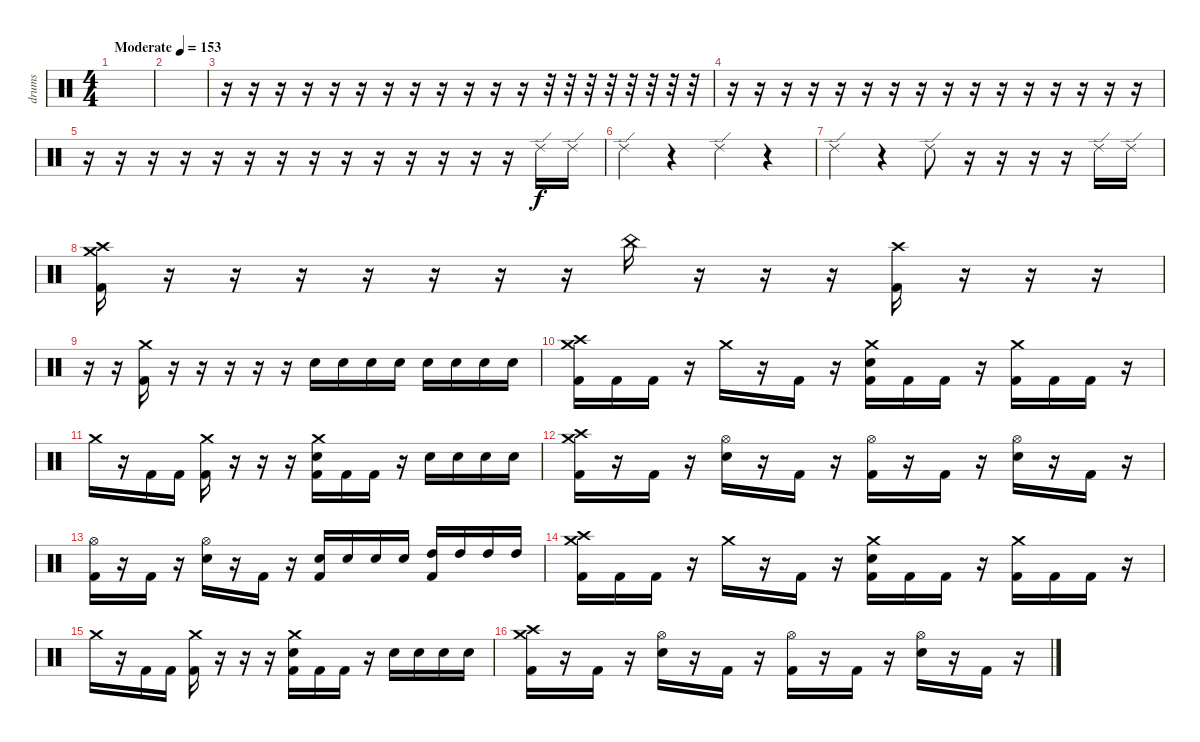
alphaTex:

\track ("drums" "drums") {instrument percussion}
\staff {score}
\articulation defaults
\ts (4 4)
\tempo (153 "Moderate")
\clef neutral
\ks c
|
|
r.16 r.16 r.16 r.16 r.16 r.16 r.16 r.16 r.16 r.16 r.16 r.16 r.32 r.32 r.32 r.32 r.32 r.32 r.32 r.32 |
r.16 r.16 r.16 r.16 r.16 r.16 r.16 r.16 r.16 r.16 r.16 r.16 r.16 r.16 r.16 r.16 |
r.16 r.16 r.16 r.16 r.16 r.16 r.16 r.16 r.16 r.16 r.16 r.16 r.16 r.16 "Ride (edge) 2".16 "Ride (edge) 2".16 |
"Ride (edge) 2".4 r.4 "Ride (edge) 2".4 r.4 |
"Ride (edge) 2".4 r.4 "Ride (edge) 2".8 r.16 r.16 r.16 r.16 "Ride (edge) 2".16 "Ride (edge) 2".16 |
("Crash medium (hit)" "Crash high (hit)" "Kick (hit) 2").16 r.16 r.16 r.16 r.16 r.16 r.16 r.16 "China (hit)".16 r.16 r.16 r.16 ("Crash high (hit)" "Kick (hit) 2").16 r.16 r.16 r.16 |
r.16 r.16 ("Crash medium (hit)" "Kick (hit) 2").16 r.16 r.16 r.16 r.16 r.16 "Electric Snare (hit)".16 "Electric Snare (hit)".16 "Electric Snare (hit)".16 "Electric Snare (hit)".16 "Electric Snare (hit)".16 "Electric Snare (hit)".16 "Electric Snare (hit)".16 "Electric Snare (hit)".16 |
("Crash medium (hit)" "Crash high (hit)" "Kick (hit) 2").16 "Kick (hit) 2".16 "Kick (hit) 2".16 r.16 "Crash medium (hit)".16 r.16 "Kick (hit) 2".16 r.16 ("Crash medium (hit)" "Electric Snare (hit)" "Kick (hit) 2").16 "Kick (hit) 2".16 "Kick (hit) 2".16 r.16 ("Crash medium (hit)" "Kick (hit) 2").16 "Kick (hit) 2".16 "Kick (hit) 2".16 r.16 |
"Crash medium (hit)".16 r.16 "Kick (hit) 2".16 "Kick (hit) 2".16 ("Crash medium (hit)" "Kick (hit) 2").16 r.16 r.16 r.16 ("Crash medium (hit)" "Electric Snare (hit)" "Kick (hit) 2").16 "Kick (hit) 2".16 "Kick (hit) 2".16 r.16 "Electric Snare (hit)".16 "Electric Snare (hit)".16 "Electric Snare (hit)".16 "Electric Snare (hit)".16 |
("Crash medium (hit)" "Crash high (hit)" "Kick (hit) 2").16 r.16 "Kick (hit) 2".16 r.16 ("Hi-Hat (open)" "Electric Snare (hit)").16 r.16 "Kick (hit) 2".16 r.16 ("Hi-Hat (open)" "Kick (hit) 2").16 r.16 "Kick (hit) 2".16 r.16 ("Hi-Hat (open)" "Electric Snare (hit)").16 r.16 "Kick (hit) 2".16 r.16 |
("Hi-Hat (open)" "Kick (hit) 2").16 r.16 "Kick (hit) 2".16 r.16 ("Hi-Hat (open)" "Electric Snare (hit)").16 r.16 "Kick (hit) 2".16 r.16 ("Electric Snare (hit)" "Kick (hit) 2").16 "Electric Snare (hit)".16 "Electric Snare (hit)".16 "Electric Snare (hit)".16 ("High Tom (hit)" "Kick (hit) 2").16 "High Tom (hit)".16 "High Tom (hit)".16 "High Tom (hit)".16 |
("Crash medium (hit)" "Crash high (hit)" "Kick (hit) 2").16 "Kick (hit) 2".16 "Kick (hit) 2".16 r.16 "Crash medium (hit)".16 r.16 "Kick (hit) 2".16 r.16 ("Crash medium (hit)" "Electric Snare (hit)" "Kick (hit) 2").16 "Kick (hit) 2".16 "Kick (hit) 2".16 r.16 ("Crash medium (hit)" "Kick (hit) 2").16 "Kick (hit) 2".16 "Kick (hit) 2".16 r.16 |
"Crash medium (hit)".16 r.16 "Kick (hit) 2".16 "Kick (hit) 2".16 ("Crash medium (hit)" "Kick (hit) 2").16 r.16 r.16 r.16 ("Crash medium (hit)" "Electric Snare (hit)" "Kick (hit) 2").16 "Kick (hit) 2".16 "Kick (hit) 2".16 r.16 "Electric Snare (hit)".16 "Electric Snare (hit)".16 "Electric Snare (hit)".16 "Electric Snare (hit)".16 |
("Crash medium (hit)" "Crash high (hit)" "Kick (hit) 2").16 r.16 "Kick (hit) 2".16 r.16 ("Hi-Hat (open)" "Electric Snare (hit)").16 r.16 "Kick (hit) 2".16 r.16 ("Hi-Hat (open)" "Kick (hit) 2").16 r.16 "Kick (hit) 2".16 r.16 ("Hi-Hat (open)" "Electric Snare (hit)").16 r.16 "Kick (hit) 2".16 r.16
